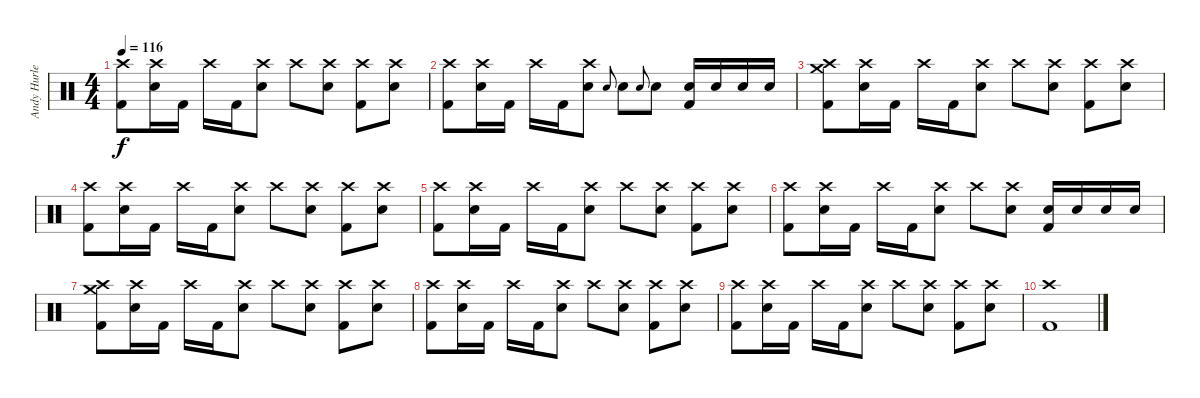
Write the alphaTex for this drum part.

\track ("Andy Hurley" "Andy Hurle") {instrument percussion}
\staff {score}
\articulation defaults
\ts (4 4)
\tempo 116
\clef neutral
\ks c
("Crash high (hit)" "Kick (hit) 2").8{dy f} ("Crash high (hit)" "Electric Snare (hit)").16 "Kick (hit) 2".16 "Crash high (hit)".16 "Kick (hit) 2".16 ("Crash high (hit)" "Electric Snare (hit)").8 "Crash high (hit)".8 ("Crash high (hit)" "Electric Snare (hit)").8 ("Crash high (hit)" "Kick (hit) 2").8 ("Crash high (hit)" "Electric Snare (hit)").8 |
("Crash high (hit)" "Kick (hit) 2").8 ("Crash high (hit)" "Electric Snare (hit)").16 "Kick (hit) 2".16 "Crash high (hit)".16 "Kick (hit) 2".16 ("Crash high (hit)" "Electric Snare (hit)").8 "Electric Snare (hit)".8{gr onbeat} "Electric Snare (hit)".8 "Electric Snare (hit)".8{gr onbeat} "Electric Snare (hit)".8 ("Electric Snare (hit)" "Kick (hit) 2").16 "Electric Snare (hit)".16 "Electric Snare (hit)".16 "Electric Snare (hit)".16 |
("Crash medium (hit)" "Crash high (hit)" "Kick (hit) 2").8 ("Crash high (hit)" "Electric Snare (hit)").16 "Kick (hit) 2".16 "Crash high (hit)".16 "Kick (hit) 2".16 ("Crash high (hit)" "Electric Snare (hit)").8 "Crash high (hit)".8 ("Crash high (hit)" "Electric Snare (hit)").8 ("Crash high (hit)" "Kick (hit) 2").8 ("Crash high (hit)" "Electric Snare (hit)").8 |
("Crash high (hit)" "Kick (hit) 2").8 ("Crash high (hit)" "Electric Snare (hit)").16 "Kick (hit) 2".16 "Crash high (hit)".16 "Kick (hit) 2".16 ("Crash high (hit)" "Electric Snare (hit)").8 "Crash high (hit)".8 ("Crash high (hit)" "Electric Snare (hit)").8 ("Crash high (hit)" "Kick (hit) 2").8 ("Crash high (hit)" "Electric Snare (hit)").8 |
("Crash high (hit)" "Kick (hit) 2").8 ("Crash high (hit)" "Electric Snare (hit)").16 "Kick (hit) 2".16 "Crash high (hit)".16 "Kick (hit) 2".16 ("Crash high (hit)" "Electric Snare (hit)").8 "Crash high (hit)".8 ("Crash high (hit)" "Electric Snare (hit)").8 ("Crash high (hit)" "Kick (hit) 2").8 ("Crash high (hit)" "Electric Snare (hit)").8 |
("Crash high (hit)" "Kick (hit) 2").8 ("Crash high (hit)" "Electric Snare (hit)").16 "Kick (hit) 2".16 "Crash high (hit)".16 "Kick (hit) 2".16 ("Crash high (hit)" "Electric Snare (hit)").8 "Crash high (hit)".8 ("Crash high (hit)" "Electric Snare (hit)").8 ("Electric Snare (hit)" "Kick (hit) 2").16 "Electric Snare (hit)".16 "Electric Snare (hit)".16 "Electric Snare (hit)".16 |
("Crash medium (hit)" "Crash high (hit)" "Kick (hit) 2").8 ("Crash high (hit)" "Electric Snare (hit)").16 "Kick (hit) 2".16 "Crash high (hit)".16 "Kick (hit) 2".16 ("Crash high (hit)" "Electric Snare (hit)").8 "Crash high (hit)".8 ("Crash high (hit)" "Electric Snare (hit)").8 ("Crash high (hit)" "Kick (hit) 2").8 ("Crash high (hit)" "Electric Snare (hit)").8 |
("Crash high (hit)" "Kick (hit) 2").8 ("Crash high (hit)" "Electric Snare (hit)").16 "Kick (hit) 2".16 "Crash high (hit)".16 "Kick (hit) 2".16 ("Crash high (hit)" "Electric Snare (hit)").8 "Crash high (hit)".8 ("Crash high (hit)" "Electric Snare (hit)").8 ("Crash high (hit)" "Kick (hit) 2").8 ("Crash high (hit)" "Electric Snare (hit)").8 |
("Crash high (hit)" "Kick (hit) 2").8 ("Crash high (hit)" "Electric Snare (hit)").16 "Kick (hit) 2".16 "Crash high (hit)".16 "Kick (hit) 2".16 ("Crash high (hit)" "Electric Snare (hit)").8 "Crash high (hit)".8 ("Crash high (hit)" "Electric Snare (hit)").8 ("Crash high (hit)" "Kick (hit) 2").8 ("Crash high (hit)" "Electric Snare (hit)").8 |
("Crash high (hit)" "Kick (hit) 2").1{volume 0}
